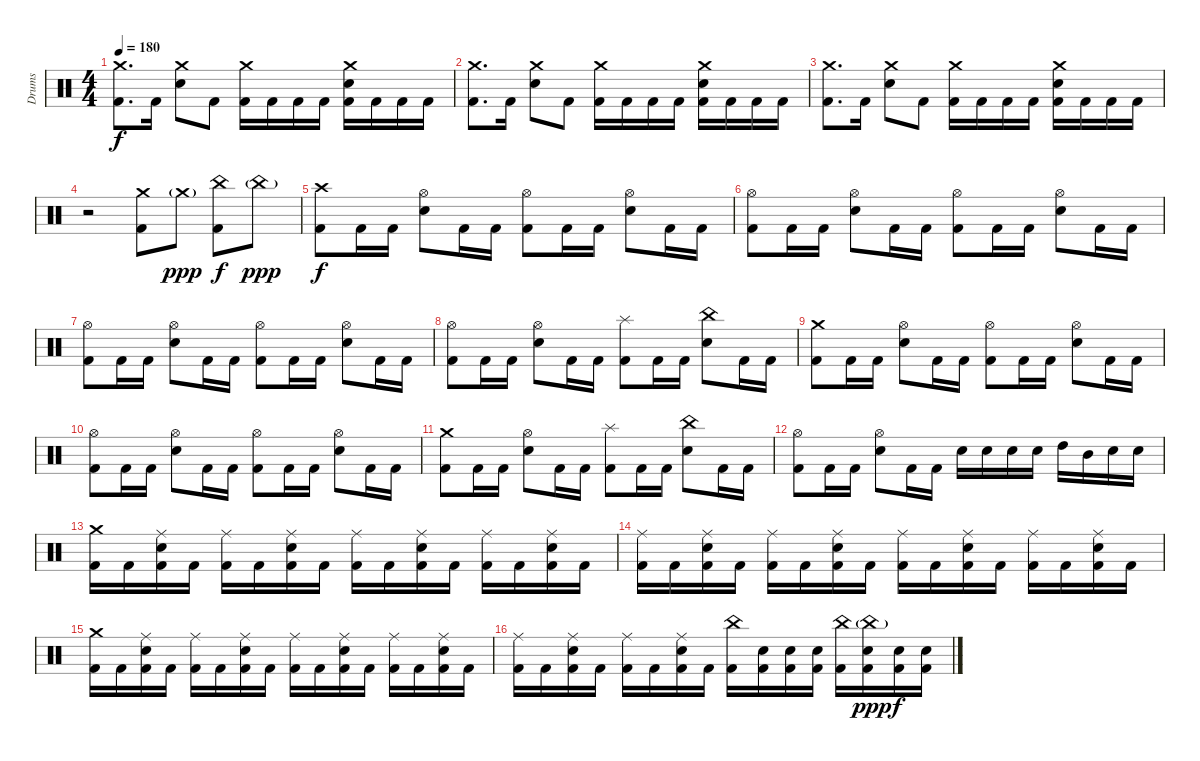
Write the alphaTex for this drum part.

\track ("Drums" "Drums") {instrument percussion}
\staff {score}
\articulation defaults
\ts (4 4)
\tempo 180
\clef neutral
\ks c
("Crash medium (hit)" "Kick (hit) 2").8{d dy f} "Kick (hit) 2".16 ("Crash medium (hit)" "Electric Snare (hit)").8 "Kick (hit) 2".8 ("Crash medium (hit)" "Kick (hit) 2").16 "Kick (hit) 2".16 "Kick (hit) 2".16 "Kick (hit) 2".16 ("Crash medium (hit)" "Electric Snare (hit)" "Kick (hit) 2").16 "Kick (hit) 2".16 "Kick (hit) 2".16 "Kick (hit) 2".16 |
("Crash medium (hit)" "Kick (hit) 2").8{d} "Kick (hit) 2".16 ("Crash medium (hit)" "Electric Snare (hit)").8 "Kick (hit) 2".8 ("Crash medium (hit)" "Kick (hit) 2").16 "Kick (hit) 2".16 "Kick (hit) 2".16 "Kick (hit) 2".16 ("Crash medium (hit)" "Electric Snare (hit)" "Kick (hit) 2").16 "Kick (hit) 2".16 "Kick (hit) 2".16 "Kick (hit) 2".16 |
("Crash medium (hit)" "Kick (hit) 2").8{d} "Kick (hit) 2".16 ("Crash medium (hit)" "Electric Snare (hit)").8 "Kick (hit) 2".8 ("Crash medium (hit)" "Kick (hit) 2").16 "Kick (hit) 2".16 "Kick (hit) 2".16 "Kick (hit) 2".16 ("Crash medium (hit)" "Electric Snare (hit)" "Kick (hit) 2").16 "Kick (hit) 2".16 "Kick (hit) 2".16 "Kick (hit) 2".16 |
r.2 ("Crash medium (hit)" "Kick (hit) 2").8 "Crash medium (hit)"{g}.8{dy ppp} ("China (hit)" "Kick (hit) 2").8{dy f} "China (hit)"{g}.8{dy ppp} |
("Crash high (hit)" "Kick (hit) 2").8{dy f} "Kick (hit) 2".16 "Kick (hit) 2".16 ("Hi-Hat (open)" "Electric Snare (hit)").8 "Kick (hit) 2".16 "Kick (hit) 2".16 ("Hi-Hat (open)" "Kick (hit) 2").8 "Kick (hit) 2".16 "Kick (hit) 2".16 ("Hi-Hat (open)" "Electric Snare (hit)").8 "Kick (hit) 2".16 "Kick (hit) 2".16 |
("Hi-Hat (open)" "Kick (hit) 2").8 "Kick (hit) 2".16 "Kick (hit) 2".16 ("Hi-Hat (open)" "Electric Snare (hit)").8 "Kick (hit) 2".16 "Kick (hit) 2".16 ("Hi-Hat (open)" "Kick (hit) 2").8 "Kick (hit) 2".16 "Kick (hit) 2".16 ("Hi-Hat (open)" "Electric Snare (hit)").8 "Kick (hit) 2".16 "Kick (hit) 2".16 |
("Hi-Hat (open)" "Kick (hit) 2").8 "Kick (hit) 2".16 "Kick (hit) 2".16 ("Hi-Hat (open)" "Electric Snare (hit)").8 "Kick (hit) 2".16 "Kick (hit) 2".16 ("Hi-Hat (open)" "Kick (hit) 2").8 "Kick (hit) 2".16 "Kick (hit) 2".16 ("Hi-Hat (open)" "Electric Snare (hit)").8 "Kick (hit) 2".16 "Kick (hit) 2".16 |
("Hi-Hat (open)" "Kick (hit) 2").8 "Kick (hit) 2".16 "Kick (hit) 2".16 ("Hi-Hat (open)" "Electric Snare (hit)").8 "Kick (hit) 2".16 "Kick (hit) 2".16 ("Splash (hit)" "Kick (hit) 2").8 "Kick (hit) 2".16 "Kick (hit) 2".16 ("China (hit)" "Electric Snare (hit)").8 "Kick (hit) 2".16 "Kick (hit) 2".16 |
("Crash medium (hit)" "Kick (hit) 2").8 "Kick (hit) 2".16 "Kick (hit) 2".16 ("Hi-Hat (open)" "Electric Snare (hit)").8 "Kick (hit) 2".16 "Kick (hit) 2".16 ("Hi-Hat (open)" "Kick (hit) 2").8 "Kick (hit) 2".16 "Kick (hit) 2".16 ("Hi-Hat (open)" "Electric Snare (hit)").8 "Kick (hit) 2".16 "Kick (hit) 2".16 |
("Hi-Hat (open)" "Kick (hit) 2").8 "Kick (hit) 2".16 "Kick (hit) 2".16 ("Hi-Hat (open)" "Electric Snare (hit)").8 "Kick (hit) 2".16 "Kick (hit) 2".16 ("Hi-Hat (open)" "Kick (hit) 2").8 "Kick (hit) 2".16 "Kick (hit) 2".16 ("Hi-Hat (open)" "Electric Snare (hit)").8 "Kick (hit) 2".16 "Kick (hit) 2".16 |
("Crash medium (hit)" "Kick (hit) 2").8 "Kick (hit) 2".16 "Kick (hit) 2".16 ("Hi-Hat (open)" "Electric Snare (hit)").8 "Kick (hit) 2".16 "Kick (hit) 2".16 ("Splash (hit)" "Kick (hit) 2").8 "Kick (hit) 2".16 "Kick (hit) 2".16 ("China (hit)" "Electric Snare (hit)").8 "Kick (hit) 2".16 "Kick (hit) 2".16 |
("Hi-Hat (open)" "Kick (hit) 2").8 "Kick (hit) 2".16 "Kick (hit) 2".16 ("Hi-Hat (open)" "Electric Snare (hit)").8 "Kick (hit) 2".16 "Kick (hit) 2".16 "Electric Snare (hit)".16 "Electric Snare (hit)".16 "Electric Snare (hit)".16 "Electric Snare (hit)".16 "High Tom (hit)".16 "Mid Tom (hit)".16 "Electric Snare (hit)".16 "Electric Snare (hit)".16 |
("Crash medium (hit)" "Kick (hit) 2").16 "Kick (hit) 2".16 ("Ride (middle)" "Electric Snare (hit)" "Kick (hit) 2").16 "Kick (hit) 2".16 ("Ride (middle)" "Kick (hit) 2").16 "Kick (hit) 2".16 ("Ride (middle)" "Electric Snare (hit)" "Kick (hit) 2").16 "Kick (hit) 2".16 ("Ride (middle)" "Kick (hit) 2").16 "Kick (hit) 2".16 ("Ride (middle)" "Electric Snare (hit)" "Kick (hit) 2").16 "Kick (hit) 2".16 ("Ride (middle)" "Kick (hit) 2").16 "Kick (hit) 2".16 ("Ride (middle)" "Electric Snare (hit)" "Kick (hit) 2").16 "Kick (hit) 2".16 |
("Ride (middle)" "Kick (hit) 2").16 "Kick (hit) 2".16 ("Ride (middle)" "Electric Snare (hit)" "Kick (hit) 2").16 "Kick (hit) 2".16 ("Ride (middle)" "Kick (hit) 2").16 "Kick (hit) 2".16 ("Ride (middle)" "Electric Snare (hit)" "Kick (hit) 2").16 "Kick (hit) 2".16 ("Ride (middle)" "Kick (hit) 2").16 "Kick (hit) 2".16 ("Ride (middle)" "Electric Snare (hit)" "Kick (hit) 2").16 "Kick (hit) 2".16 ("Ride (middle)" "Kick (hit) 2").16 "Kick (hit) 2".16 ("Ride (middle)" "Electric Snare (hit)" "Kick (hit) 2").16 "Kick (hit) 2".16 |
("Crash medium (hit)" "Kick (hit) 2").16 "Kick (hit) 2".16 ("Ride (middle)" "Electric Snare (hit)" "Kick (hit) 2").16 "Kick (hit) 2".16 ("Ride (middle)" "Kick (hit) 2").16 "Kick (hit) 2".16 ("Ride (middle)" "Electric Snare (hit)" "Kick (hit) 2").16 "Kick (hit) 2".16 ("Ride (middle)" "Kick (hit) 2").16 "Kick (hit) 2".16 ("Ride (middle)" "Electric Snare (hit)" "Kick (hit) 2").16 "Kick (hit) 2".16 ("Ride (middle)" "Kick (hit) 2").16 "Kick (hit) 2".16 ("Ride (middle)" "Electric Snare (hit)" "Kick (hit) 2").16 "Kick (hit) 2".16 |
("Ride (middle)" "Kick (hit) 2").16 "Kick (hit) 2".16 ("Ride (middle)" "Electric Snare (hit)" "Kick (hit) 2").16 "Kick (hit) 2".16 ("Ride (middle)" "Kick (hit) 2").16 "Kick (hit) 2".16 ("Ride (middle)" "Electric Snare (hit)" "Kick (hit) 2").16 "Kick (hit) 2".16 ("China (hit)" "Kick (hit) 2").16 ("Electric Snare (hit)" "Kick (hit) 2").16 ("Electric Snare (hit)" "Kick (hit) 2").16 ("Electric Snare (hit)" "Kick (hit) 2").16 ("China (hit)" "Kick (hit) 2").16 ("China (hit)"{g} "Electric Snare (hit)" "Kick (hit) 2").16{dy ppp} ("Electric Snare (hit)" "Kick (hit) 2").16{dy f} ("Electric Snare (hit)" "Kick (hit) 2").16
